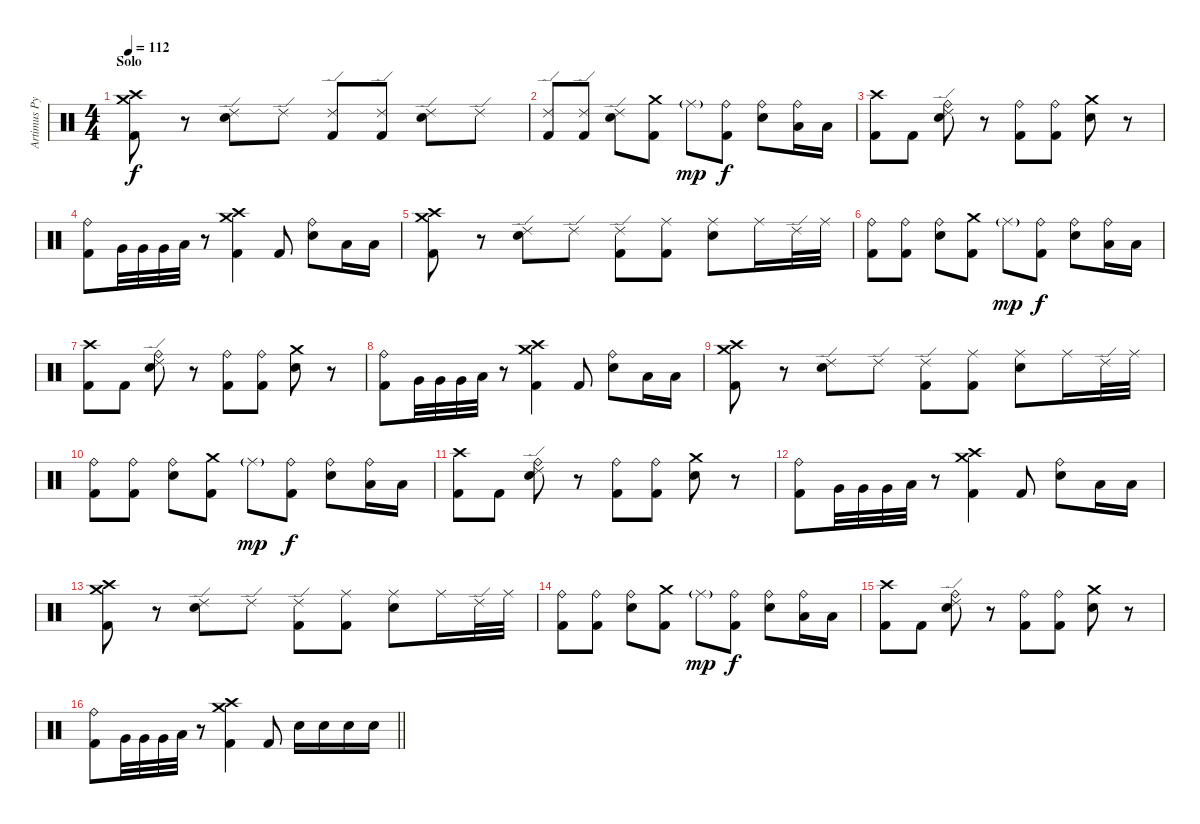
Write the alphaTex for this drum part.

\track ("Artimus Pyle" "Artimus Py") {instrument percussion}
\staff {score}
\articulation defaults
\ts (4 4)
\section ("" "Solo")
\tempo 112
\clef neutral
\ks c
("Crash medium (hit)" "Crash high (hit)" "Kick (hit) 2").8{dy f} r.8 ("Ride (edge) 2" "Snare (hit) 2").8 "Ride (edge) 2".8 ("Ride (edge) 2" "Kick (hit) 2").8 ("Ride (edge) 2" "Kick (hit) 2").8 ("Ride (edge) 2" "Snare (hit) 2").8 "Ride (edge) 2".8 |
("Ride (edge) 2" "Kick (hit) 2").8 ("Ride (edge) 2" "Kick (hit) 2").8 ("Ride (edge) 2" "Snare (hit) 2").8 ("Crash medium (hit)" "Kick (hit) 2").8 "Ride (middle)"{g}.8{dy mp} ("Ride (bell)" "Kick (hit) 2").8{dy f} ("Ride (bell)" "Snare (hit) 2").8 ("Ride (bell)" "Low Tom (hit)").16 "Low Tom (hit)".16 |
("Crash high (hit)" "Kick (hit) 2").8 "Kick (hit) 2".8 ("Ride (bell)" "Ride (edge) 2" "Snare (hit) 2").8 r.8 ("Ride (bell)" "Kick (hit) 2").8 ("Ride (bell)" "Kick (hit) 2").8 ("Crash medium (hit)" "Snare (hit) 2").8 r.8 |
("Ride (bell)" "Kick (hit) 2").8 "Very Low Tom (hit)".32 "Very Low Tom (hit)".32 "Very Low Tom (hit)".32 "Low Tom (hit)".32 r.8 ("Crash high (hit)" "Crash medium (hit)" "Kick (hit) 2").4 "Kick (hit) 2".8 ("Ride (bell)" "Snare (hit) 2").8 "Low Floor Tom (hit)".16 "Low Floor Tom (hit)".16 |
("Crash medium (hit)" "Crash high (hit)" "Kick (hit) 2").8 r.8 ("Ride (edge) 2" "Snare (hit) 2").8 "Ride (edge) 2".8 ("Ride (edge) 2" "Kick (hit) 2").8 ("Ride (middle)" "Kick (hit) 2").8 ("Ride (middle)" "Snare (hit) 2").8 "Ride (middle)".16 "Ride (edge) 2".32 "Ride (middle)".32 |
("Ride (bell)" "Kick (hit) 2").8 ("Ride (bell)" "Kick (hit) 2").8 ("Ride (bell)" "Snare (hit) 2").8 ("Crash medium (hit)" "Kick (hit) 2").8 "Ride (middle)"{g}.8{dy mp} ("Ride (bell)" "Kick (hit) 2").8{dy f} ("Ride (bell)" "Snare (hit) 2").8 ("Ride (bell)" "Low Tom (hit)").16 "Low Tom (hit)".16 |
("Crash high (hit)" "Kick (hit) 2").8 "Kick (hit) 2".8 ("Ride (bell)" "Ride (edge) 2" "Snare (hit) 2").8 r.8 ("Ride (bell)" "Kick (hit) 2").8 ("Ride (bell)" "Kick (hit) 2").8 ("Crash medium (hit)" "Snare (hit) 2").8 r.8 |
("Ride (bell)" "Kick (hit) 2").8 "Very Low Tom (hit)".32 "Very Low Tom (hit)".32 "Very Low Tom (hit)".32 "Low Tom (hit)".32 r.8 ("Crash high (hit)" "Crash medium (hit)" "Kick (hit) 2").4 "Kick (hit) 2".8 ("Ride (bell)" "Snare (hit) 2").8 "Low Floor Tom (hit)".16 "Low Floor Tom (hit)".16 |
("Crash medium (hit)" "Crash high (hit)" "Kick (hit) 2").8 r.8 ("Ride (edge) 2" "Snare (hit) 2").8 "Ride (edge) 2".8 ("Ride (edge) 2" "Kick (hit) 2").8 ("Ride (middle)" "Kick (hit) 2").8 ("Ride (middle)" "Snare (hit) 2").8 "Ride (middle)".16 "Ride (edge) 2".32 "Ride (middle)".32 |
("Ride (bell)" "Kick (hit) 2").8 ("Ride (bell)" "Kick (hit) 2").8 ("Ride (bell)" "Snare (hit) 2").8 ("Crash medium (hit)" "Kick (hit) 2").8 "Ride (middle)"{g}.8{dy mp} ("Ride (bell)" "Kick (hit) 2").8{dy f} ("Ride (bell)" "Snare (hit) 2").8 ("Ride (bell)" "Low Tom (hit)").16 "Low Tom (hit)".16 |
("Crash high (hit)" "Kick (hit) 2").8 "Kick (hit) 2".8 ("Ride (bell)" "Ride (edge) 2" "Snare (hit) 2").8 r.8 ("Ride (bell)" "Kick (hit) 2").8 ("Ride (bell)" "Kick (hit) 2").8 ("Crash medium (hit)" "Snare (hit) 2").8 r.8 |
("Ride (bell)" "Kick (hit) 2").8 "Very Low Tom (hit)".32 "Very Low Tom (hit)".32 "Very Low Tom (hit)".32 "Low Tom (hit)".32 r.8 ("Crash high (hit)" "Crash medium (hit)" "Kick (hit) 2").4 "Kick (hit) 2".8 ("Ride (bell)" "Snare (hit) 2").8 "Low Floor Tom (hit)".16 "Low Floor Tom (hit)".16 |
("Crash medium (hit)" "Crash high (hit)" "Kick (hit) 2").8 r.8 ("Ride (edge) 2" "Snare (hit) 2").8 "Ride (edge) 2".8 ("Ride (edge) 2" "Kick (hit) 2").8 ("Ride (middle)" "Kick (hit) 2").8 ("Ride (middle)" "Snare (hit) 2").8 "Ride (middle)".16 "Ride (edge) 2".32 "Ride (middle)".32 |
("Ride (bell)" "Kick (hit) 2").8 ("Ride (bell)" "Kick (hit) 2").8 ("Ride (bell)" "Snare (hit) 2").8 ("Crash medium (hit)" "Kick (hit) 2").8 "Ride (middle)"{g}.8{dy mp} ("Ride (bell)" "Kick (hit) 2").8{dy f} ("Ride (bell)" "Snare (hit) 2").8 ("Ride (bell)" "Low Tom (hit)").16 "Low Tom (hit)".16 |
("Crash high (hit)" "Kick (hit) 2").8 "Kick (hit) 2".8 ("Ride (bell)" "Ride (edge) 2" "Snare (hit) 2").8 r.8 ("Ride (bell)" "Kick (hit) 2").8 ("Ride (bell)" "Kick (hit) 2").8 ("Crash medium (hit)" "Snare (hit) 2").8 r.8 |
\barLineRight lightlight
("Ride (bell)" "Kick (hit) 2").8 "Very Low Tom (hit)".32 "Very Low Tom (hit)".32 "Very Low Tom (hit)".32 "Low Tom (hit)".32 r.8 ("Crash high (hit)" "Crash medium (hit)" "Kick (hit) 2").4 "Kick (hit) 2".8 "Snare (hit) 2".16 "Snare (hit) 2".16 "Snare (hit) 2".16 "Snare (hit) 2".16
